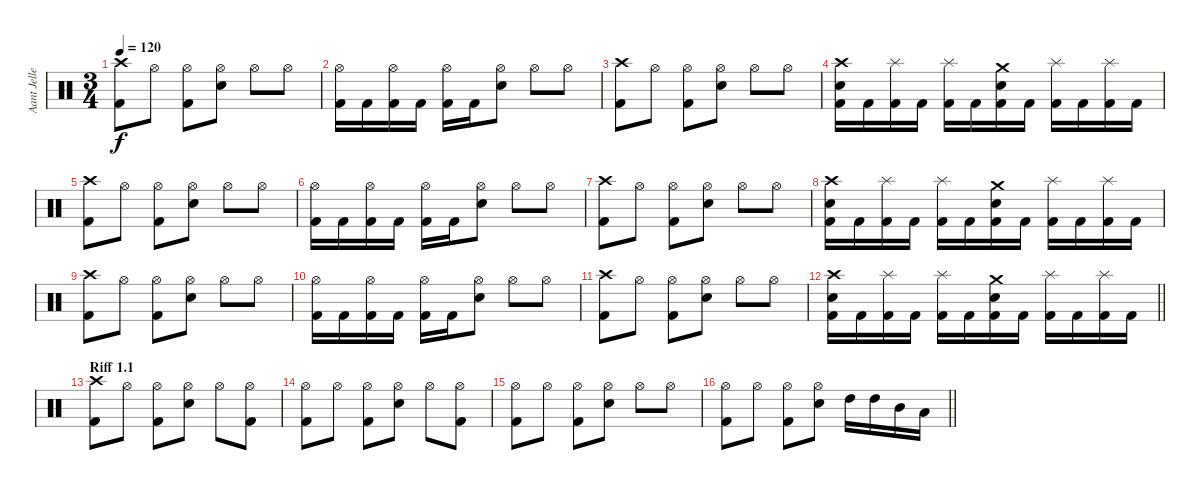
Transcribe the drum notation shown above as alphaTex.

\track ("Aant Jelle" "Aant Jelle") {instrument percussion}
\staff {score}
\articulation defaults
\ts (3 4)
\tempo 120
\clef neutral
\ks c
("Crash high (hit)" "Kick (hit) 2").8{dy f} "Hi-Hat (open)".8 ("Hi-Hat (open)" "Kick (hit) 2").8 ("Hi-Hat (open)" "Snare (hit) 2").8 "Hi-Hat (open)".8 "Hi-Hat (open)".8 |
("Hi-Hat (open)" "Kick (hit) 2").16 "Kick (hit) 2".16 ("Hi-Hat (open)" "Kick (hit) 2").16 "Kick (hit) 2".16 ("Hi-Hat (open)" "Kick (hit) 2").16 "Kick (hit) 2".16 ("Hi-Hat (open)" "Snare (hit) 2").8 "Hi-Hat (open)".8 "Hi-Hat (open)".8 |
("Crash high (hit)" "Kick (hit) 2").8 "Hi-Hat (open)".8 ("Hi-Hat (open)" "Kick (hit) 2").8 ("Hi-Hat (open)" "Snare (hit) 2").8 "Hi-Hat (open)".8 "Hi-Hat (open)".8 |
("Crash high (hit)" "Snare (hit) 2" "Kick (hit) 2").16 "Kick (hit) 2".16 ("Splash (hit)" "Kick (hit) 2").16 "Kick (hit) 2".16 ("Splash (hit)" "Kick (hit) 2").16 "Kick (hit) 2".16 ("Crash medium (hit)" "Snare (hit) 2" "Kick (hit) 2").16 "Kick (hit) 2".16 ("Splash (hit)" "Kick (hit) 2").16 "Kick (hit) 2".16 ("Splash (hit)" "Kick (hit) 2").16 "Kick (hit) 2".16 |
("Crash high (hit)" "Kick (hit) 2").8 "Hi-Hat (open)".8 ("Hi-Hat (open)" "Kick (hit) 2").8 ("Hi-Hat (open)" "Snare (hit) 2").8 "Hi-Hat (open)".8 "Hi-Hat (open)".8 |
("Hi-Hat (open)" "Kick (hit) 2").16 "Kick (hit) 2".16 ("Hi-Hat (open)" "Kick (hit) 2").16 "Kick (hit) 2".16 ("Hi-Hat (open)" "Kick (hit) 2").16 "Kick (hit) 2".16 ("Hi-Hat (open)" "Snare (hit) 2").8 "Hi-Hat (open)".8 "Hi-Hat (open)".8 |
("Crash high (hit)" "Kick (hit) 2").8 "Hi-Hat (open)".8 ("Hi-Hat (open)" "Kick (hit) 2").8 ("Hi-Hat (open)" "Snare (hit) 2").8 "Hi-Hat (open)".8 "Hi-Hat (open)".8 |
("Crash high (hit)" "Snare (hit) 2" "Kick (hit) 2").16 "Kick (hit) 2".16 ("Splash (hit)" "Kick (hit) 2").16 "Kick (hit) 2".16 ("Splash (hit)" "Kick (hit) 2").16 "Kick (hit) 2".16 ("Crash medium (hit)" "Snare (hit) 2" "Kick (hit) 2").16 "Kick (hit) 2".16 ("Splash (hit)" "Kick (hit) 2").16 "Kick (hit) 2".16 ("Splash (hit)" "Kick (hit) 2").16 "Kick (hit) 2".16 |
("Crash high (hit)" "Kick (hit) 2").8 "Hi-Hat (open)".8 ("Hi-Hat (open)" "Kick (hit) 2").8 ("Hi-Hat (open)" "Snare (hit) 2").8 "Hi-Hat (open)".8 "Hi-Hat (open)".8 |
("Hi-Hat (open)" "Kick (hit) 2").16 "Kick (hit) 2".16 ("Hi-Hat (open)" "Kick (hit) 2").16 "Kick (hit) 2".16 ("Hi-Hat (open)" "Kick (hit) 2").16 "Kick (hit) 2".16 ("Hi-Hat (open)" "Snare (hit) 2").8 "Hi-Hat (open)".8 "Hi-Hat (open)".8 |
("Crash high (hit)" "Kick (hit) 2").8 "Hi-Hat (open)".8 ("Hi-Hat (open)" "Kick (hit) 2").8 ("Hi-Hat (open)" "Snare (hit) 2").8 "Hi-Hat (open)".8 "Hi-Hat (open)".8 |
\barLineRight lightlight
("Crash high (hit)" "Snare (hit) 2" "Kick (hit) 2").16 "Kick (hit) 2".16 ("Splash (hit)" "Kick (hit) 2").16 "Kick (hit) 2".16 ("Splash (hit)" "Kick (hit) 2").16 "Kick (hit) 2".16 ("Crash medium (hit)" "Snare (hit) 2" "Kick (hit) 2").16 "Kick (hit) 2".16 ("Splash (hit)" "Kick (hit) 2").16 "Kick (hit) 2".16 ("Splash (hit)" "Kick (hit) 2").16 "Kick (hit) 2".16 |
\section ("" "Riff 1.1")
("Crash high (hit)" "Kick (hit) 2").8 "Hi-Hat (open)".8 ("Hi-Hat (open)" "Kick (hit) 2").8 ("Hi-Hat (open)" "Snare (hit) 2").8 "Hi-Hat (open)".8 ("Hi-Hat (open)" "Kick (hit) 2").8 |
("Hi-Hat (open)" "Kick (hit) 2").8 "Hi-Hat (open)".8 ("Hi-Hat (open)" "Kick (hit) 2").8 ("Hi-Hat (open)" "Snare (hit) 2").8 "Hi-Hat (open)".8 ("Hi-Hat (open)" "Kick (hit) 2").8 |
("Hi-Hat (open)" "Kick (hit) 2").8 "Hi-Hat (open)".8 ("Hi-Hat (open)" "Kick (hit) 2").8 ("Hi-Hat (open)" "Snare (hit) 2").8 "Hi-Hat (open)".8 "Hi-Hat (open)".8 |
\barLineRight lightlight
("Hi-Hat (open)" "Kick (hit) 2").8 "Hi-Hat (open)".8 ("Hi-Hat (open)" "Kick (hit) 2").8 ("Hi-Hat (open)" "Snare (hit) 2").8 "High Tom (hit)".16 "High Tom (hit)".16 "Mid Tom (hit)".16 "Low Tom (hit)".16
